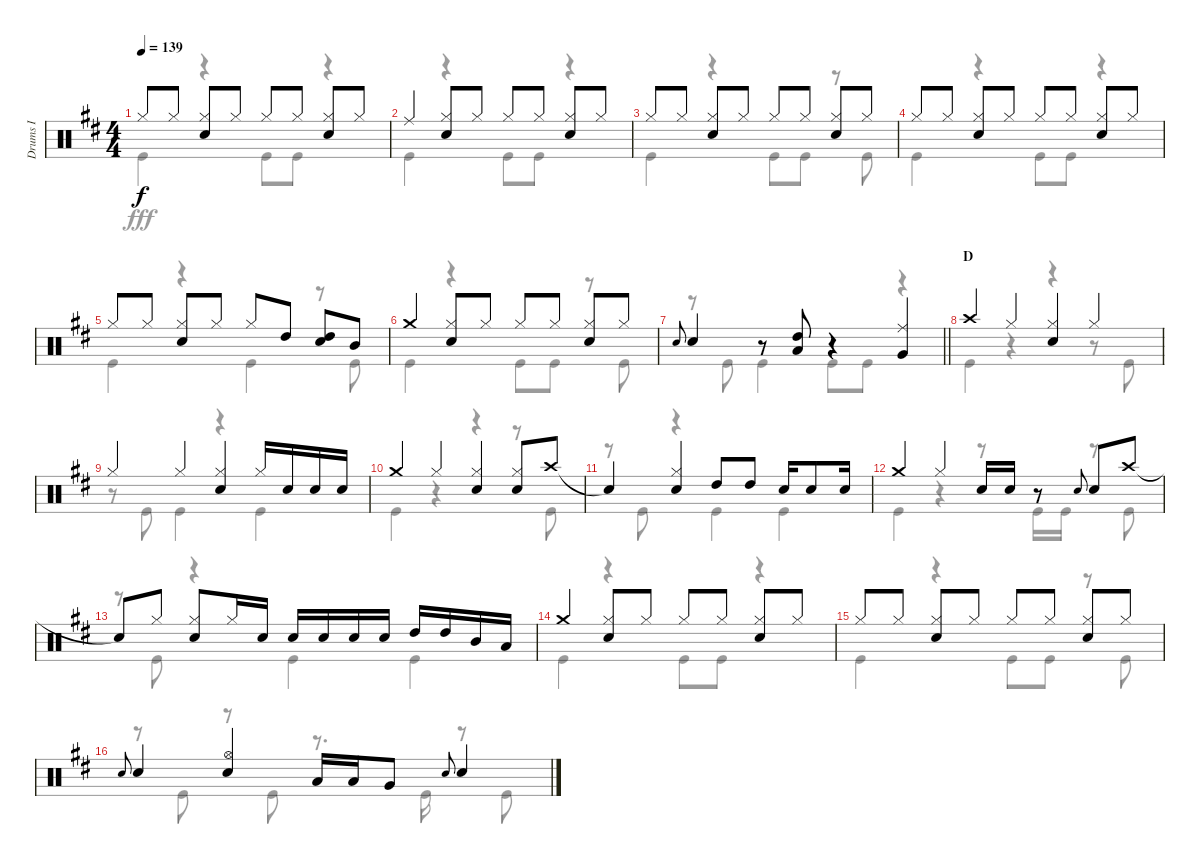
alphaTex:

\track ("Drums I" "Drums I") {instrument percussion}
\staff {score}
\articulation defaults
\voice
\ts (4 4)
\tempo 139
\clef neutral
\ks d "Hi-Hat (closed)".8{dy f} "Hi-Hat (closed)".8
("Hi-Hat (closed)" "Snare (hit) 2").8 "Hi-Hat (closed)".8 "Hi-Hat (closed)".8 "Hi-Hat (closed)".8 ("Hi-Hat (closed)" "Snare (hit) 2").8 "Hi-Hat (closed)".8 |
"Ride (middle)".4 ("Hi-Hat (closed)" "Snare (hit) 2").8 "Hi-Hat (closed)".8 "Hi-Hat (closed)".8 "Hi-Hat (closed)".8 ("Hi-Hat (closed)" "Snare (hit) 2").8 "Hi-Hat (closed)".8 |
"Hi-Hat (closed)".8 "Hi-Hat (closed)".8 ("Hi-Hat (closed)" "Snare (hit) 2").8 "Hi-Hat (closed)".8 "Hi-Hat (closed)".8 "Hi-Hat (closed)".8 ("Hi-Hat (closed)" "Snare (hit) 2").8 "Hi-Hat (closed)".8 |
"Hi-Hat (closed)".8 "Hi-Hat (closed)".8 ("Hi-Hat (closed)" "Snare (hit) 2").8 "Hi-Hat (closed)".8 "Hi-Hat (closed)".8 "Hi-Hat (closed)".8 ("Hi-Hat (closed)" "Snare (hit) 2").8 "Hi-Hat (closed)".8 |
"Hi-Hat (closed)".8 "Hi-Hat (closed)".8 ("Hi-Hat (closed)" "Snare (hit) 2").8 "Hi-Hat (closed)".8 "Hi-Hat (closed)".8 "High Tom (hit)".8 ("High Tom (hit)" "Snare (hit) 2").8 "Mid Tom (hit)".8 |
"Crash medium (hit)".4 ("Hi-Hat (closed)" "Snare (hit) 2").8 "Hi-Hat (closed)".8 "Hi-Hat (closed)".8 "Hi-Hat (closed)".8 ("Hi-Hat (closed)" "Snare (hit) 2").8 "Hi-Hat (closed)".8 |
\barLineRight lightlight "Snare (hit) 2".8{gr onbeat} "Snare (hit) 2".4
r.8 ("High Tom (hit)" "Low Tom (hit)").8 r.4 ("Ride (middle)" "Very Low Tom (hit)").4 |
\section ("" "D")
"Crash high (hit)".4 "Hi-Hat (closed)".4 ("Hi-Hat (closed)" "Snare (hit) 2").4 "Hi-Hat (closed)".4 |
"Hi-Hat (closed)".4 "Hi-Hat (closed)".4 ("Hi-Hat (closed)" "Snare (hit) 2").4 "Hi-Hat (closed)".16 "Snare (hit) 2".16 "Snare (hit) 2".16 "Snare (hit) 2".16 |
"Crash medium (hit)".4 "Hi-Hat (closed)".4 ("Hi-Hat (closed)" "Snare (hit) 2").4 ("Hi-Hat (closed)" "Snare (hit) 2").8 "Crash high (hit)".8 |
"Snare (hit)"{t}.4 ("Hi-Hat (closed)" "Snare (hit) 2").4 "High Tom (hit)".8 "High Tom (hit)".8 "Snare (hit) 2".16 "Snare (hit) 2".8 "Snare (hit) 2".16 |
"Crash medium (hit)".4 "Hi-Hat (closed)".4 "Snare (hit) 2".16 "Snare (hit) 2".16 r.8 "Snare (hit) 2".8{gr onbeat} "Snare (hit) 2".8 "Crash high (hit)".8 |
"Snare (hit)"{t}.8 "Hi-Hat (closed)".8 ("Hi-Hat (closed)" "Snare (hit) 2").8 "Hi-Hat (closed)".16 "Snare (hit) 2".16 "Snare (hit) 2".16 "Snare (hit) 2".16 "Snare (hit) 2".16 "Snare (hit) 2".16 "High Tom (hit)".16 "High Tom (hit)".16 "Mid Tom (hit)".16 "Low Tom (hit)".16 |
"Crash medium (hit)".4 ("Hi-Hat (closed)" "Snare (hit) 2").8 "Hi-Hat (closed)".8 "Hi-Hat (closed)".8 "Hi-Hat (closed)".8 ("Hi-Hat (closed)" "Snare (hit) 2").8 "Hi-Hat (closed)".8 |
"Hi-Hat (closed)".8 "Hi-Hat (closed)".8 ("Hi-Hat (closed)" "Snare (hit) 2").8 "Hi-Hat (closed)".8 "Hi-Hat (closed)".8 "Hi-Hat (closed)".8 ("Hi-Hat (closed)" "Snare (hit) 2").8 "Hi-Hat (closed)".8 |
"Snare (hit) 2".8{gr onbeat} "Snare (hit) 2".4 ("Hi-Hat (open)" "Snare (hit) 2").4 "Low Tom (hit)".16 "Low Tom (hit)".16 "Very Low Tom (hit)".8 "Snare (hit) 2".8{gr onbeat} "Snare (hit) 2".4
\voice
\clef neutral
\ottava regular
\simile none
\ks d "Kick (hit)".4{dy fff}
r.4 "Kick (hit)".8 "Kick (hit)".8 r.4 |
"Kick (hit)".4 r.4 "Kick (hit)".8 "Kick (hit)".8 r.4 |
"Kick (hit)".4 r.4 "Kick (hit)".8 "Kick (hit)".8 r.8 "Kick (hit)".8 |
"Kick (hit)".4 r.4 "Kick (hit)".8 "Kick (hit)".8 r.4 |
"Kick (hit)".4 r.4 "Kick (hit)".4 r.8 "Kick (hit)".8 |
"Kick (hit)".4 r.4 "Kick (hit)".8 "Kick (hit)".8 r.8 "Kick (hit)".8 |
\barLineRight lightlight
r.8 "Kick (hit)".8 "Kick (hit)".4 "Kick (hit)".8 "Kick (hit)".8 r.4 |
"Kick (hit)".4 r.4 r.4 r.8 "Kick (hit)".8 |
r.8 "Kick (hit)".8 "Kick (hit)".4 r.4 "Kick (hit)".4 |
"Kick (hit)".4 r.4 r.4 r.8 "Kick (hit)".8 |
r.8 "Kick (hit)".8 r.4 "Kick (hit)".4 "Kick (hit)".4 |
"Kick (hit)".4 r.4 r.8 "Kick (hit)".16 "Kick (hit)".16 r.8 "Kick (hit)".8 |
r.8 "Kick (hit)".8 r.4 "Kick (hit)".4 "Kick (hit)".4 |
"Kick (hit)".4 r.4 "Kick (hit)".8 "Kick (hit)".8 r.4 |
"Kick (hit)".4 r.4 "Kick (hit)".8 "Kick (hit)".8 r.8 "Kick (hit)".8 |
r.8 "Kick (hit)".8 r.8 "Kick (hit)".8 r.8{d} "Kick (hit)".16 r.8 "Kick (hit)".8
